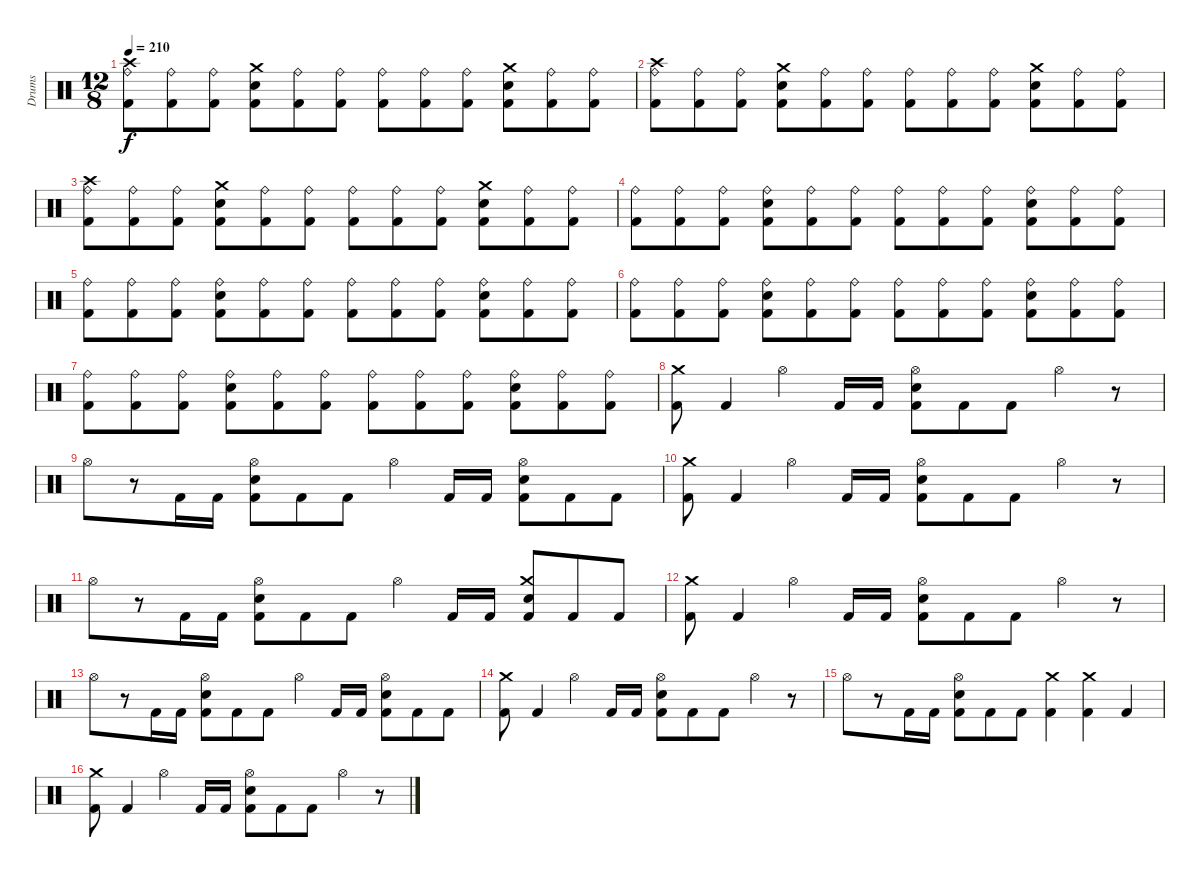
\track ("Drums" "Drums") {instrument percussion}
\staff {score}
\articulation defaults
\ts (12 8)
\tempo 210
\clef neutral
\ks c
("Crash high (hit)" "Ride (bell)" "Kick (hit) 2").8{dy f} ("Ride (bell)" "Kick (hit) 2").8 ("Ride (bell)" "Kick (hit) 2").8 ("Crash medium (hit)" "Snare (hit) 2" "Kick (hit) 2").8 ("Ride (bell)" "Kick (hit) 2").8 ("Ride (bell)" "Kick (hit) 2").8 ("Ride (bell)" "Kick (hit) 2").8 ("Ride (bell)" "Kick (hit) 2").8 ("Ride (bell)" "Kick (hit) 2").8 ("Crash medium (hit)" "Snare (hit) 2" "Kick (hit) 2").8 ("Ride (bell)" "Kick (hit) 2").8 ("Ride (bell)" "Kick (hit) 2").8 |
("Crash high (hit)" "Ride (bell)" "Kick (hit) 2").8 ("Ride (bell)" "Kick (hit) 2").8 ("Ride (bell)" "Kick (hit) 2").8 ("Crash medium (hit)" "Snare (hit) 2" "Kick (hit) 2").8 ("Ride (bell)" "Kick (hit) 2").8 ("Ride (bell)" "Kick (hit) 2").8 ("Ride (bell)" "Kick (hit) 2").8 ("Ride (bell)" "Kick (hit) 2").8 ("Ride (bell)" "Kick (hit) 2").8 ("Crash medium (hit)" "Snare (hit) 2" "Kick (hit) 2").8 ("Ride (bell)" "Kick (hit) 2").8 ("Ride (bell)" "Kick (hit) 2").8 |
("Crash high (hit)" "Ride (bell)" "Kick (hit) 2").8 ("Ride (bell)" "Kick (hit) 2").8 ("Ride (bell)" "Kick (hit) 2").8 ("Crash medium (hit)" "Snare (hit) 2" "Kick (hit) 2").8 ("Ride (bell)" "Kick (hit) 2").8 ("Ride (bell)" "Kick (hit) 2").8 ("Ride (bell)" "Kick (hit) 2").8 ("Ride (bell)" "Kick (hit) 2").8 ("Ride (bell)" "Kick (hit) 2").8 ("Crash medium (hit)" "Snare (hit) 2" "Kick (hit) 2").8 ("Ride (bell)" "Kick (hit) 2").8 ("Ride (bell)" "Kick (hit) 2").8 |
("Ride (bell)" "Kick (hit) 2").8 ("Ride (bell)" "Kick (hit) 2").8 ("Ride (bell)" "Kick (hit) 2").8 ("Ride (bell)" "Snare (hit) 2" "Kick (hit) 2").8 ("Ride (bell)" "Kick (hit) 2").8 ("Ride (bell)" "Kick (hit) 2").8 ("Ride (bell)" "Kick (hit) 2").8 ("Ride (bell)" "Kick (hit) 2").8 ("Ride (bell)" "Kick (hit) 2").8 ("Ride (bell)" "Snare (hit) 2" "Kick (hit) 2").8 ("Ride (bell)" "Kick (hit) 2").8 ("Ride (bell)" "Kick (hit) 2").8 |
("Ride (bell)" "Kick (hit) 2").8 ("Ride (bell)" "Kick (hit) 2").8 ("Ride (bell)" "Kick (hit) 2").8 ("Ride (bell)" "Snare (hit) 2" "Kick (hit) 2").8 ("Ride (bell)" "Kick (hit) 2").8 ("Ride (bell)" "Kick (hit) 2").8 ("Ride (bell)" "Kick (hit) 2").8 ("Ride (bell)" "Kick (hit) 2").8 ("Ride (bell)" "Kick (hit) 2").8 ("Ride (bell)" "Snare (hit) 2" "Kick (hit) 2").8 ("Ride (bell)" "Kick (hit) 2").8 ("Ride (bell)" "Kick (hit) 2").8 |
("Ride (bell)" "Kick (hit) 2").8 ("Ride (bell)" "Kick (hit) 2").8 ("Ride (bell)" "Kick (hit) 2").8 ("Ride (bell)" "Snare (hit) 2" "Kick (hit) 2").8 ("Ride (bell)" "Kick (hit) 2").8 ("Ride (bell)" "Kick (hit) 2").8 ("Ride (bell)" "Kick (hit) 2").8 ("Ride (bell)" "Kick (hit) 2").8 ("Ride (bell)" "Kick (hit) 2").8 ("Ride (bell)" "Snare (hit) 2" "Kick (hit) 2").8 ("Ride (bell)" "Kick (hit) 2").8 ("Ride (bell)" "Kick (hit) 2").8 |
("Ride (bell)" "Kick (hit) 2").8 ("Ride (bell)" "Kick (hit) 2").8 ("Ride (bell)" "Kick (hit) 2").8 ("Ride (bell)" "Snare (hit) 2" "Kick (hit) 2").8 ("Ride (bell)" "Kick (hit) 2").8 ("Ride (bell)" "Kick (hit) 2").8 ("Ride (bell)" "Kick (hit) 2").8 ("Ride (bell)" "Kick (hit) 2").8 ("Ride (bell)" "Kick (hit) 2").8 ("Ride (bell)" "Snare (hit) 2" "Kick (hit) 2").8 ("Ride (bell)" "Kick (hit) 2").8 ("Ride (bell)" "Kick (hit) 2").8 |
("Crash medium (hit)" "Kick (hit) 2").8 "Kick (hit) 2".4 "Hi-Hat (open)".4 "Kick (hit) 2".16 "Kick (hit) 2".16 ("Hi-Hat (open)" "Snare (hit) 2" "Kick (hit) 2").8 "Kick (hit) 2".8 "Kick (hit) 2".8 "Hi-Hat (open)".4 r.8 |
"Hi-Hat (open)".8 r.8 "Kick (hit) 2".16 "Kick (hit) 2".16 ("Hi-Hat (open)" "Snare (hit) 2" "Kick (hit) 2").8 "Kick (hit) 2".8 "Kick (hit) 2".8 "Hi-Hat (open)".4 "Kick (hit) 2".16 "Kick (hit) 2".16 ("Hi-Hat (open)" "Snare (hit) 2" "Kick (hit) 2").8 "Kick (hit) 2".8 "Kick (hit) 2".8 |
("Crash medium (hit)" "Kick (hit) 2").8 "Kick (hit) 2".4 "Hi-Hat (open)".4 "Kick (hit) 2".16 "Kick (hit) 2".16 ("Hi-Hat (open)" "Snare (hit) 2" "Kick (hit) 2").8 "Kick (hit) 2".8 "Kick (hit) 2".8 "Hi-Hat (open)".4 r.8 |
"Hi-Hat (open)".8 r.8 "Kick (hit) 2".16 "Kick (hit) 2".16 ("Hi-Hat (open)" "Snare (hit) 2" "Kick (hit) 2").8 "Kick (hit) 2".8 "Kick (hit) 2".8 "Hi-Hat (open)".4 "Kick (hit) 2".16 "Kick (hit) 2".16 ("Crash medium (hit)" "Snare (hit) 2" "Kick (hit) 2").8 "Kick (hit) 2".8 "Kick (hit) 2".8 |
("Crash medium (hit)" "Kick (hit) 2").8 "Kick (hit) 2".4 "Hi-Hat (open)".4 "Kick (hit) 2".16 "Kick (hit) 2".16 ("Hi-Hat (open)" "Snare (hit) 2" "Kick (hit) 2").8 "Kick (hit) 2".8 "Kick (hit) 2".8 "Hi-Hat (open)".4 r.8 |
"Hi-Hat (open)".8 r.8 "Kick (hit) 2".16 "Kick (hit) 2".16 ("Hi-Hat (open)" "Snare (hit) 2" "Kick (hit) 2").8 "Kick (hit) 2".8 "Kick (hit) 2".8 "Hi-Hat (open)".4 "Kick (hit) 2".16 "Kick (hit) 2".16 ("Hi-Hat (open)" "Snare (hit) 2" "Kick (hit) 2").8 "Kick (hit) 2".8 "Kick (hit) 2".8 |
("Crash medium (hit)" "Kick (hit) 2").8 "Kick (hit) 2".4 "Hi-Hat (open)".4 "Kick (hit) 2".16 "Kick (hit) 2".16 ("Hi-Hat (open)" "Snare (hit) 2" "Kick (hit) 2").8 "Kick (hit) 2".8 "Kick (hit) 2".8 "Hi-Hat (open)".4 r.8 |
"Hi-Hat (open)".8 r.8 "Kick (hit) 2".16 "Kick (hit) 2".16 ("Hi-Hat (open)" "Snare (hit) 2" "Kick (hit) 2").8 "Kick (hit) 2".8 "Kick (hit) 2".8 ("Crash medium (hit)" "Kick (hit) 2").4 ("Crash medium (hit)" "Kick (hit) 2").4 "Kick (hit) 2".4 |
("Crash medium (hit)" "Kick (hit) 2").8 "Kick (hit) 2".4 "Hi-Hat (open)".4 "Kick (hit) 2".16 "Kick (hit) 2".16 ("Hi-Hat (open)" "Snare (hit) 2" "Kick (hit) 2").8 "Kick (hit) 2".8 "Kick (hit) 2".8 "Hi-Hat (open)".4 r.8
